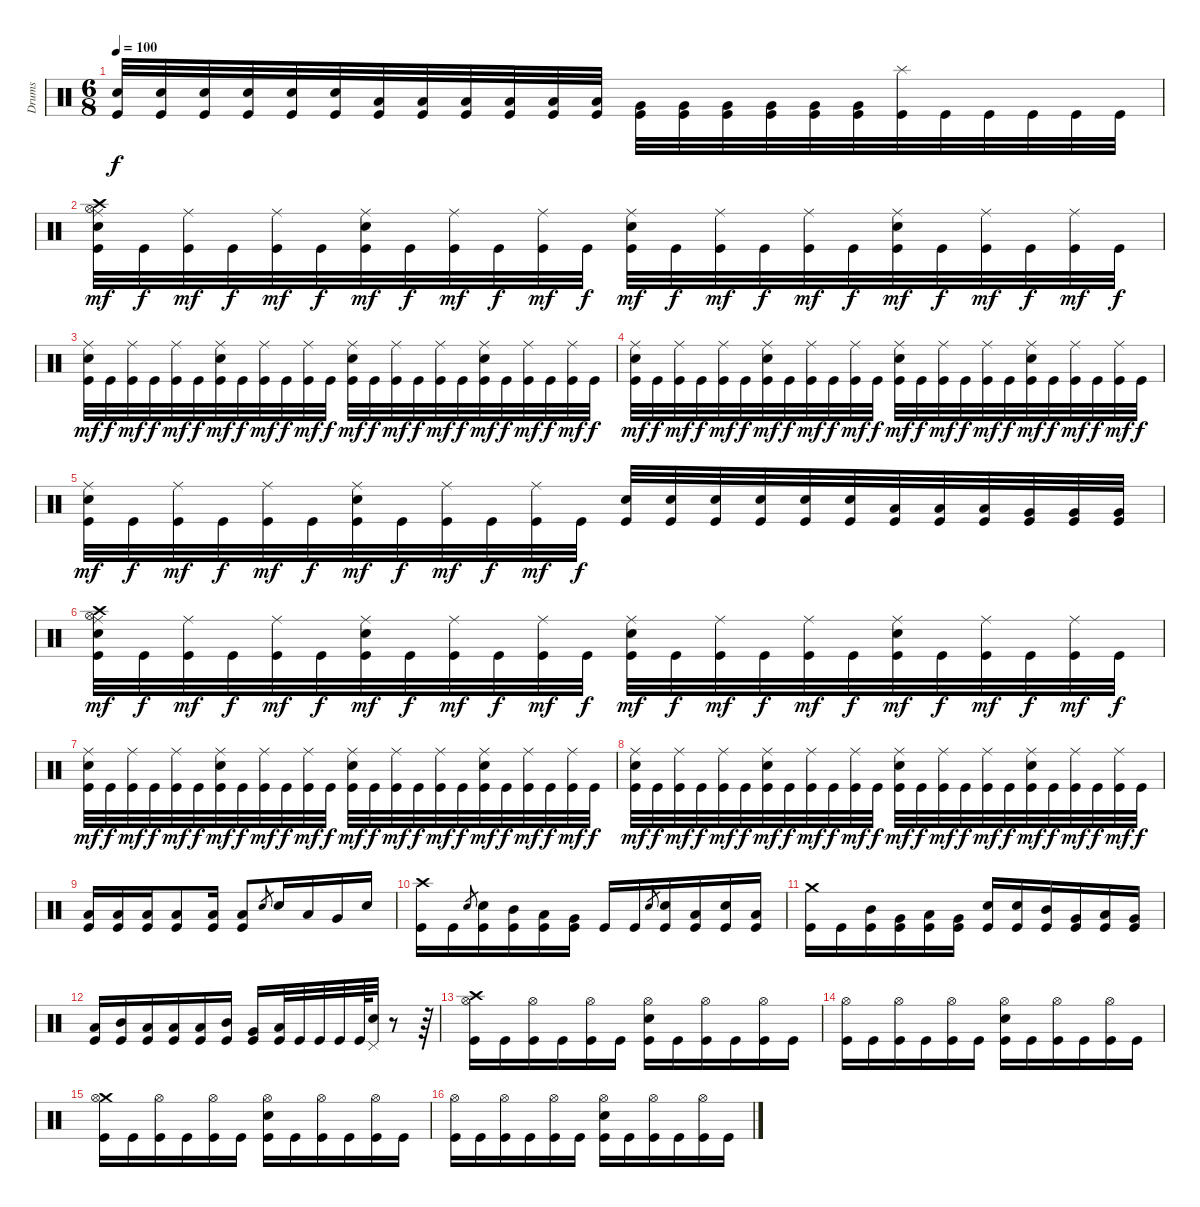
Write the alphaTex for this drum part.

\track ("Drums" "Drums") {instrument percussion}
\staff {score}
\articulation defaults
\ts (6 8)
\tempo 100
\clef neutral
\ks c
("Electric Snare (hit)" "Kick (hit)").32{dy f} ("Electric Snare (hit)" "Kick (hit)").32 ("Electric Snare (hit)" "Kick (hit)").32 ("Electric Snare (hit)" "Kick (hit)").32 ("Electric Snare (hit)" "Kick (hit)").32 ("Electric Snare (hit)" "Kick (hit)").32 ("Low Tom (hit)" "Kick (hit)").32 ("Low Tom (hit)" "Kick (hit)").32 ("Low Tom (hit)" "Kick (hit)").32 ("Low Tom (hit)" "Kick (hit)").32 ("Low Tom (hit)" "Kick (hit)").32 ("Low Tom (hit)" "Kick (hit)").32 ("Very Low Tom (hit)" "Kick (hit)").32 ("Very Low Tom (hit)" "Kick (hit)").32 ("Very Low Tom (hit)" "Kick (hit)").32 ("Very Low Tom (hit)" "Kick (hit)").32 ("Very Low Tom (hit)" "Kick (hit)").32 ("Very Low Tom (hit)" "Kick (hit)").32 ("Splash (hit)" "Kick (hit)").32 "Kick (hit)".32 "Kick (hit)".32 "Kick (hit)".32 "Kick (hit)".32 "Kick (hit)".32 |
("Crash high (hit)" "Hi-Hat (open)" "Ride (middle)" "Electric Snare (hit)" "Kick (hit)").32{dy mf} "Kick (hit)".32{dy f} ("Ride (middle)" "Kick (hit)").32{dy mf} "Kick (hit)".32{dy f} ("Ride (middle)" "Kick (hit)").32{dy mf} "Kick (hit)".32{dy f} ("Ride (middle)" "Electric Snare (hit)" "Kick (hit)").32{dy mf} "Kick (hit)".32{dy f} ("Ride (middle)" "Kick (hit)").32{dy mf} "Kick (hit)".32{dy f} ("Ride (middle)" "Kick (hit)").32{dy mf} "Kick (hit)".32{dy f} ("Ride (middle)" "Electric Snare (hit)" "Kick (hit)").32{dy mf} "Kick (hit)".32{dy f} ("Ride (middle)" "Kick (hit)").32{dy mf} "Kick (hit)".32{dy f} ("Ride (middle)" "Kick (hit)").32{dy mf} "Kick (hit)".32{dy f} ("Ride (middle)" "Electric Snare (hit)" "Kick (hit)").32{dy mf} "Kick (hit)".32{dy f} ("Ride (middle)" "Kick (hit)").32{dy mf} "Kick (hit)".32{dy f} ("Ride (middle)" "Kick (hit)").32{dy mf} "Kick (hit)".32{dy f} |
("Ride (middle)" "Electric Snare (hit)" "Kick (hit)").32{dy mf} "Kick (hit)".32{dy f} ("Ride (middle)" "Kick (hit)").32{dy mf} "Kick (hit)".32{dy f} ("Ride (middle)" "Kick (hit)").32{dy mf} "Kick (hit)".32{dy f} ("Ride (middle)" "Electric Snare (hit)" "Kick (hit)").32{dy mf} "Kick (hit)".32{dy f} ("Ride (middle)" "Kick (hit)").32{dy mf} "Kick (hit)".32{dy f} ("Ride (middle)" "Kick (hit)").32{dy mf} "Kick (hit)".32{dy f} ("Ride (middle)" "Electric Snare (hit)" "Kick (hit)").32{dy mf} "Kick (hit)".32{dy f} ("Ride (middle)" "Kick (hit)").32{dy mf} "Kick (hit)".32{dy f} ("Ride (middle)" "Kick (hit)").32{dy mf} "Kick (hit)".32{dy f} ("Ride (middle)" "Electric Snare (hit)" "Kick (hit)").32{dy mf} "Kick (hit)".32{dy f} ("Ride (middle)" "Kick (hit)").32{dy mf} "Kick (hit)".32{dy f} ("Ride (middle)" "Kick (hit)").32{dy mf} "Kick (hit)".32{dy f} |
("Ride (middle)" "Electric Snare (hit)" "Kick (hit)").32{dy mf} "Kick (hit)".32{dy f} ("Ride (middle)" "Kick (hit)").32{dy mf} "Kick (hit)".32{dy f} ("Ride (middle)" "Kick (hit)").32{dy mf} "Kick (hit)".32{dy f} ("Ride (middle)" "Electric Snare (hit)" "Kick (hit)").32{dy mf} "Kick (hit)".32{dy f} ("Ride (middle)" "Kick (hit)").32{dy mf} "Kick (hit)".32{dy f} ("Ride (middle)" "Kick (hit)").32{dy mf} "Kick (hit)".32{dy f} ("Ride (middle)" "Electric Snare (hit)" "Kick (hit)").32{dy mf} "Kick (hit)".32{dy f} ("Ride (middle)" "Kick (hit)").32{dy mf} "Kick (hit)".32{dy f} ("Ride (middle)" "Kick (hit)").32{dy mf} "Kick (hit)".32{dy f} ("Ride (middle)" "Electric Snare (hit)" "Kick (hit)").32{dy mf} "Kick (hit)".32{dy f} ("Ride (middle)" "Kick (hit)").32{dy mf} "Kick (hit)".32{dy f} ("Ride (middle)" "Kick (hit)").32{dy mf} "Kick (hit)".32{dy f} |
("Ride (middle)" "Electric Snare (hit)" "Kick (hit)").32{dy mf} "Kick (hit)".32{dy f} ("Ride (middle)" "Kick (hit)").32{dy mf} "Kick (hit)".32{dy f} ("Ride (middle)" "Kick (hit)").32{dy mf} "Kick (hit)".32{dy f} ("Ride (middle)" "Electric Snare (hit)" "Kick (hit)").32{dy mf} "Kick (hit)".32{dy f} ("Ride (middle)" "Kick (hit)").32{dy mf} "Kick (hit)".32{dy f} ("Ride (middle)" "Kick (hit)").32{dy mf} "Kick (hit)".32{dy f} ("Electric Snare (hit)" "Kick (hit)").32 ("Electric Snare (hit)" "Kick (hit)").32 ("Electric Snare (hit)" "Kick (hit)").32 ("Electric Snare (hit)" "Kick (hit)").32 ("Electric Snare (hit)" "Kick (hit)").32 ("Electric Snare (hit)" "Kick (hit)").32 ("Low Tom (hit)" "Kick (hit)").32 ("Low Tom (hit)" "Kick (hit)").32 ("Low Tom (hit)" "Kick (hit)").32 ("Very Low Tom (hit)" "Kick (hit)").32 ("Very Low Tom (hit)" "Kick (hit)").32 ("Very Low Tom (hit)" "Kick (hit)").32 |
("Crash high (hit)" "Hi-Hat (open)" "Ride (middle)" "Electric Snare (hit)" "Kick (hit)").32{dy mf} "Kick (hit)".32{dy f} ("Ride (middle)" "Kick (hit)").32{dy mf} "Kick (hit)".32{dy f} ("Ride (middle)" "Kick (hit)").32{dy mf} "Kick (hit)".32{dy f} ("Ride (middle)" "Electric Snare (hit)" "Kick (hit)").32{dy mf} "Kick (hit)".32{dy f} ("Ride (middle)" "Kick (hit)").32{dy mf} "Kick (hit)".32{dy f} ("Ride (middle)" "Kick (hit)").32{dy mf} "Kick (hit)".32{dy f} ("Ride (middle)" "Electric Snare (hit)" "Kick (hit)").32{dy mf} "Kick (hit)".32{dy f} ("Ride (middle)" "Kick (hit)").32{dy mf} "Kick (hit)".32{dy f} ("Ride (middle)" "Kick (hit)").32{dy mf} "Kick (hit)".32{dy f} ("Ride (middle)" "Electric Snare (hit)" "Kick (hit)").32{dy mf} "Kick (hit)".32{dy f} ("Ride (middle)" "Kick (hit)").32{dy mf} "Kick (hit)".32{dy f} ("Ride (middle)" "Kick (hit)").32{dy mf} "Kick (hit)".32{dy f} |
("Ride (middle)" "Electric Snare (hit)" "Kick (hit)").32{dy mf} "Kick (hit)".32{dy f} ("Ride (middle)" "Kick (hit)").32{dy mf} "Kick (hit)".32{dy f} ("Ride (middle)" "Kick (hit)").32{dy mf} "Kick (hit)".32{dy f} ("Ride (middle)" "Electric Snare (hit)" "Kick (hit)").32{dy mf} "Kick (hit)".32{dy f} ("Ride (middle)" "Kick (hit)").32{dy mf} "Kick (hit)".32{dy f} ("Ride (middle)" "Kick (hit)").32{dy mf} "Kick (hit)".32{dy f} ("Ride (middle)" "Electric Snare (hit)" "Kick (hit)").32{dy mf} "Kick (hit)".32{dy f} ("Ride (middle)" "Kick (hit)").32{dy mf} "Kick (hit)".32{dy f} ("Ride (middle)" "Kick (hit)").32{dy mf} "Kick (hit)".32{dy f} ("Ride (middle)" "Electric Snare (hit)" "Kick (hit)").32{dy mf} "Kick (hit)".32{dy f} ("Ride (middle)" "Kick (hit)").32{dy mf} "Kick (hit)".32{dy f} ("Ride (middle)" "Kick (hit)").32{dy mf} "Kick (hit)".32{dy f} |
("Ride (middle)" "Electric Snare (hit)" "Kick (hit)").32{dy mf} "Kick (hit)".32{dy f} ("Ride (middle)" "Kick (hit)").32{dy mf} "Kick (hit)".32{dy f} ("Ride (middle)" "Kick (hit)").32{dy mf} "Kick (hit)".32{dy f} ("Ride (middle)" "Electric Snare (hit)" "Kick (hit)").32{dy mf} "Kick (hit)".32{dy f} ("Ride (middle)" "Kick (hit)").32{dy mf} "Kick (hit)".32{dy f} ("Ride (middle)" "Kick (hit)").32{dy mf} "Kick (hit)".32{dy f} ("Ride (middle)" "Electric Snare (hit)" "Kick (hit)").32{dy mf} "Kick (hit)".32{dy f} ("Ride (middle)" "Kick (hit)").32{dy mf} "Kick (hit)".32{dy f} ("Ride (middle)" "Kick (hit)").32{dy mf} "Kick (hit)".32{dy f} ("Ride (middle)" "Electric Snare (hit)" "Kick (hit)").32{dy mf} "Kick (hit)".32{dy f} ("Ride (middle)" "Kick (hit)").32{dy mf} "Kick (hit)".32{dy f} ("Ride (middle)" "Kick (hit)").32{dy mf} "Kick (hit)".32{dy f} |
("Low Floor Tom (hit)" "Kick (hit)").16 ("Low Floor Tom (hit)" "Kick (hit)").16 ("Low Floor Tom (hit)" "Kick (hit)").16 ("Low Floor Tom (hit)" "Kick (hit)").8 ("Low Floor Tom (hit)" "Kick (hit)").16 ("Low Floor Tom (hit)" "Kick (hit)").8 "Electric Snare (hit)".8{gr} "Electric Snare (hit)".16 "Low Tom (hit)".16 "Very Low Tom (hit)".16 "Electric Snare (hit)".16 |
("Crash high (hit)" "Kick (hit)").16 "Kick (hit)".16 "Electric Snare (hit)".8{gr} ("Electric Snare (hit)" "Kick (hit)").16 ("Mid Tom (hit)" "Kick (hit)").16 ("Low Tom (hit)" "Kick (hit)").16 ("Very Low Tom (hit)" "Kick (hit)").16 "Kick (hit)".16 "Kick (hit)".16 "Electric Snare (hit)".8{gr} ("Electric Snare (hit)" "Kick (hit)").16 ("Low Tom (hit)" "Kick (hit)").16 ("Electric Snare (hit)" "Kick (hit)").16 ("Low Floor Tom (hit)" "Kick (hit)").16 |
("Crash medium (hit)" "Kick (hit)").16 "Kick (hit)".16 ("Mid Tom (hit)" "Kick (hit)").16 ("Very Low Tom (hit)" "Kick (hit)").16 ("Low Tom (hit)" "Kick (hit)").16 ("Very Low Tom (hit)" "Kick (hit)").16 ("Electric Snare (hit)" "Kick (hit)").16 ("Electric Snare (hit)" "Kick (hit)").16 ("Mid Tom (hit)" "Kick (hit)").16 ("Very Low Tom (hit)" "Kick (hit)").16 ("Low Tom (hit)" "Kick (hit)").16 ("Very Low Tom (hit)" "Kick (hit)").16 |
("Low Floor Tom (hit)" "Kick (hit)").16 ("Mid Tom (hit)" "Kick (hit)").16 ("Low Floor Tom (hit)" "Kick (hit)").16 ("Low Tom (hit)" "Kick (hit)").16 ("Low Tom (hit)" "Kick (hit)").16 ("Mid Tom (hit)" "Kick (hit)").16 ("Very Low Tom (hit)" "Kick (hit)").16 ("Low Floor Tom (hit)" "Kick (hit)").32 "Kick (hit)".32 "Kick (hit)".32 "Kick (hit)".32 "Kick (hit)".64 ("Pedal Hi-Hat (hit)" "Electric Snare (hit)").32 r.8 r.64 |
("Crash high (hit)" "Hi-Hat (open)" "Kick (hit)").16 "Kick (hit)".16 ("Hi-Hat (open)" "Kick (hit)").16 "Kick (hit)".16 ("Hi-Hat (open)" "Kick (hit)").16 "Kick (hit)".16 ("Hi-Hat (open)" "Electric Snare (hit)" "Kick (hit)").16 "Kick (hit)".16 ("Hi-Hat (open)" "Kick (hit)").16 "Kick (hit)".16 ("Hi-Hat (open)" "Kick (hit)").16 "Kick (hit)".16 |
("Hi-Hat (open)" "Kick (hit)").16 "Kick (hit)".16 ("Hi-Hat (open)" "Kick (hit)").16 "Kick (hit)".16 ("Hi-Hat (open)" "Kick (hit)").16 "Kick (hit)".16 ("Hi-Hat (open)" "Electric Snare (hit)" "Kick (hit)").16 "Kick (hit)".16 ("Hi-Hat (open)" "Kick (hit)").16 "Kick (hit)".16 ("Hi-Hat (open)" "Kick (hit)").16 "Kick (hit)".16 |
("Crash medium (hit)" "Hi-Hat (open)" "Kick (hit)").16 "Kick (hit)".16 ("Hi-Hat (open)" "Kick (hit)").16 "Kick (hit)".16 ("Hi-Hat (open)" "Kick (hit)").16 "Kick (hit)".16 ("Hi-Hat (open)" "Electric Snare (hit)" "Kick (hit)").16 "Kick (hit)".16 ("Hi-Hat (open)" "Kick (hit)").16 "Kick (hit)".16 ("Hi-Hat (open)" "Kick (hit)").16 "Kick (hit)".16 |
("Hi-Hat (open)" "Kick (hit)").16 "Kick (hit)".16 ("Hi-Hat (open)" "Kick (hit)").16 "Kick (hit)".16 ("Hi-Hat (open)" "Kick (hit)").16 "Kick (hit)".16 ("Hi-Hat (open)" "Electric Snare (hit)" "Kick (hit)").16 "Kick (hit)".16 ("Hi-Hat (open)" "Kick (hit)").16 "Kick (hit)".16 ("Hi-Hat (open)" "Kick (hit)").16 "Kick (hit)".16
